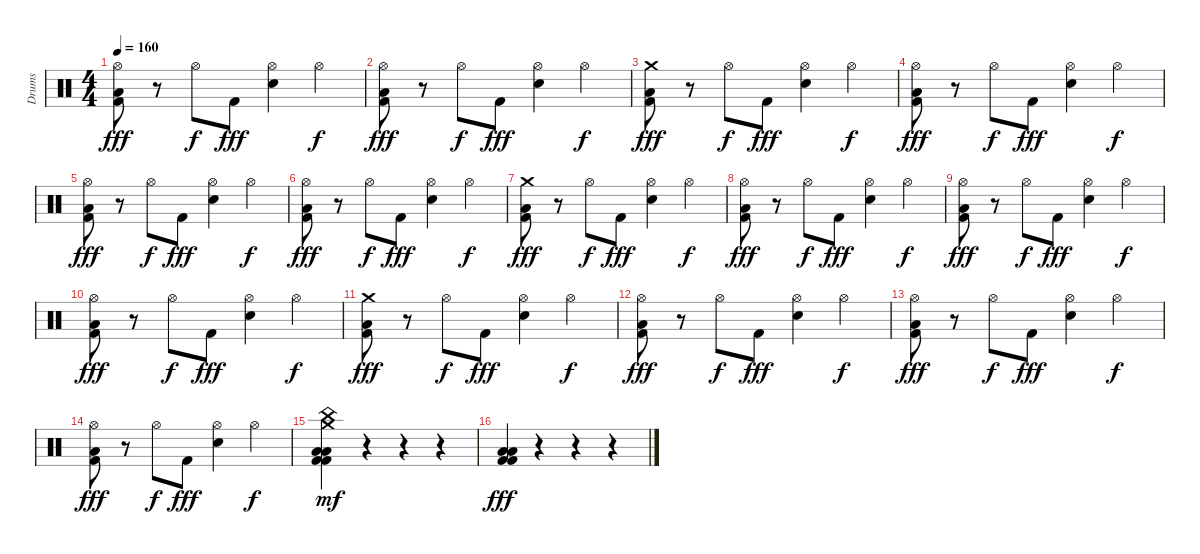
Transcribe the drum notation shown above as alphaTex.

\track ("Drums" "Drums") {instrument percussion}
\staff {score}
\articulation defaults
\ts (4 4)
\tempo 160
\clef neutral
\ks c
("Hi-Hat (open)" "Kick (hit) 2" "Low Tom (hit)").8{dy fff} r.8 "Hi-Hat (open)".8{dy f} "Kick (hit) 2".8{dy fff} ("Hi-Hat (open)" "Electric Snare (hit)").4 "Hi-Hat (open)".4{dy f} |
("Hi-Hat (open)" "Kick (hit) 2" "Low Tom (hit)").8{dy fff} r.8 "Hi-Hat (open)".8{dy f} "Kick (hit) 2".8{dy fff} ("Hi-Hat (open)" "Electric Snare (hit)").4 "Hi-Hat (open)".4{dy f} |
("Crash medium (hit)" "Kick (hit) 2" "Low Tom (hit)").8{dy fff} r.8 "Hi-Hat (open)".8{dy f} "Kick (hit) 2".8{dy fff} ("Hi-Hat (open)" "Electric Snare (hit)").4 "Hi-Hat (open)".4{dy f} |
("Hi-Hat (open)" "Kick (hit) 2" "Low Tom (hit)").8{dy fff} r.8 "Hi-Hat (open)".8{dy f} "Kick (hit) 2".8{dy fff} ("Hi-Hat (open)" "Electric Snare (hit)").4 "Hi-Hat (open)".4{dy f} |
("Hi-Hat (open)" "Kick (hit) 2" "Low Tom (hit)").8{dy fff} r.8 "Hi-Hat (open)".8{dy f} "Kick (hit) 2".8{dy fff} ("Hi-Hat (open)" "Electric Snare (hit)").4 "Hi-Hat (open)".4{dy f} |
("Hi-Hat (open)" "Kick (hit) 2" "Low Tom (hit)").8{dy fff} r.8 "Hi-Hat (open)".8{dy f} "Kick (hit) 2".8{dy fff} ("Hi-Hat (open)" "Electric Snare (hit)").4 "Hi-Hat (open)".4{dy f} |
("Crash medium (hit)" "Kick (hit) 2" "Low Tom (hit)").8{dy fff} r.8 "Hi-Hat (open)".8{dy f} "Kick (hit) 2".8{dy fff} ("Hi-Hat (open)" "Electric Snare (hit)").4 "Hi-Hat (open)".4{dy f} |
("Hi-Hat (open)" "Kick (hit) 2" "Low Tom (hit)").8{dy fff} r.8 "Hi-Hat (open)".8{dy f} "Kick (hit) 2".8{dy fff} ("Hi-Hat (open)" "Electric Snare (hit)").4 "Hi-Hat (open)".4{dy f} |
("Hi-Hat (open)" "Kick (hit) 2" "Low Tom (hit)").8{dy fff} r.8 "Hi-Hat (open)".8{dy f} "Kick (hit) 2".8{dy fff} ("Hi-Hat (open)" "Electric Snare (hit)").4 "Hi-Hat (open)".4{dy f} |
("Hi-Hat (open)" "Kick (hit) 2" "Low Tom (hit)").8{dy fff} r.8 "Hi-Hat (open)".8{dy f} "Kick (hit) 2".8{dy fff} ("Hi-Hat (open)" "Electric Snare (hit)").4 "Hi-Hat (open)".4{dy f} |
("Crash medium (hit)" "Kick (hit) 2" "Low Tom (hit)").8{dy fff} r.8 "Hi-Hat (open)".8{dy f} "Kick (hit) 2".8{dy fff} ("Hi-Hat (open)" "Electric Snare (hit)").4 "Hi-Hat (open)".4{dy f} |
("Hi-Hat (open)" "Kick (hit) 2" "Low Tom (hit)").8{dy fff} r.8 "Hi-Hat (open)".8{dy f} "Kick (hit) 2".8{dy fff} ("Hi-Hat (open)" "Electric Snare (hit)").4 "Hi-Hat (open)".4{dy f} |
("Hi-Hat (open)" "Kick (hit) 2" "Low Tom (hit)").8{dy fff} r.8 "Hi-Hat (open)".8{dy f} "Kick (hit) 2".8{dy fff} ("Hi-Hat (open)" "Electric Snare (hit)").4 "Hi-Hat (open)".4{dy f} |
("Hi-Hat (open)" "Kick (hit) 2" "Low Tom (hit)").8{dy fff} r.8 "Hi-Hat (open)".8{dy f} "Kick (hit) 2".8{dy fff} ("Hi-Hat (open)" "Electric Snare (hit)").4 "Hi-Hat (open)".4{dy f} |
("Low Tom (hit)" "Kick (hit) 2" "Kick (hit) 2" "Low Tom (hit)" "Crash medium (hit)" "China (hit)").4{dy mf} r.4 r.4 r.4 |
("Low Tom (hit)" "Kick (hit) 2" "Kick (hit) 2" "Low Tom (hit)").4{dy fff} r.4 r.4 r.4
